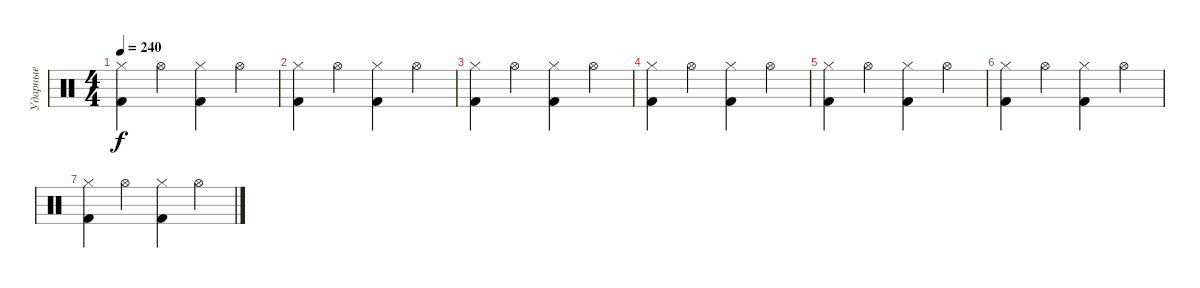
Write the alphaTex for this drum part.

\track ("Ударные" "Ударные") {instrument percussion}
\staff {score}
\articulation defaults
\ts (4 4)
\tempo 240
\clef neutral
\ks c
("Hi-Hat (closed)" "Kick (hit) 2").4{dy f} "Hi-Hat (open)".4 ("Hi-Hat (closed)" "Kick (hit) 2").4 "Hi-Hat (open)".4 |
("Hi-Hat (closed)" "Kick (hit) 2").4 "Hi-Hat (open)".4 ("Hi-Hat (closed)" "Kick (hit) 2").4 "Hi-Hat (open)".4 |
("Hi-Hat (closed)" "Kick (hit) 2").4 "Hi-Hat (open)".4 ("Hi-Hat (closed)" "Kick (hit) 2").4 "Hi-Hat (open)".4 |
("Hi-Hat (closed)" "Kick (hit) 2").4 "Hi-Hat (open)".4 ("Hi-Hat (closed)" "Kick (hit) 2").4 "Hi-Hat (open)".4 |
("Hi-Hat (closed)" "Kick (hit) 2").4 "Hi-Hat (open)".4 ("Hi-Hat (closed)" "Kick (hit) 2").4 "Hi-Hat (open)".4 |
("Hi-Hat (closed)" "Kick (hit) 2").4 "Hi-Hat (open)".4 ("Hi-Hat (closed)" "Kick (hit) 2").4 "Hi-Hat (open)".4 |
("Hi-Hat (closed)" "Kick (hit) 2").4 "Hi-Hat (open)".4 ("Hi-Hat (closed)" "Kick (hit) 2").4 "Hi-Hat (open)".4
